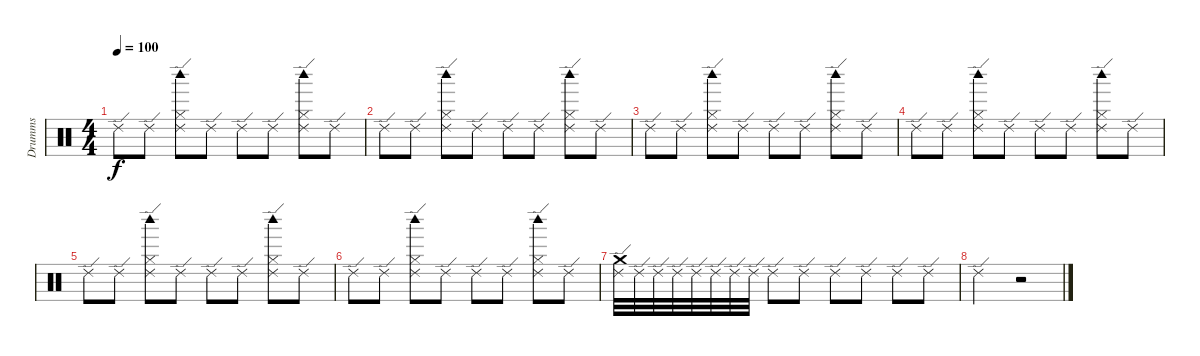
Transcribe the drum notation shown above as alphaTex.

\track ("Drumms" "Drumms") {instrument percussion}
\staff {score}
\articulation defaults
\ts (4 4)
\tempo 100
\clef neutral
\ks c "Ride (edge) 2".8{dy f} "Ride (edge) 2".8
("Ride (edge) 2" "Hi-Hat (closed)" "Woodblock high (hit)").8 "Ride (edge) 2".8 "Ride (edge) 2".8 "Ride (edge) 2".8 ("Ride (edge) 2" "Hi-Hat (closed)" "Woodblock high (hit)").8 "Ride (edge) 2".8 |
"Ride (edge) 2".8 "Ride (edge) 2".8 ("Ride (edge) 2" "Hi-Hat (closed)" "Woodblock high (hit)").8 "Ride (edge) 2".8 "Ride (edge) 2".8 "Ride (edge) 2".8 ("Ride (edge) 2" "Hi-Hat (closed)" "Woodblock high (hit)").8 "Ride (edge) 2".8 |
"Ride (edge) 2".8 "Ride (edge) 2".8 ("Ride (edge) 2" "Hi-Hat (closed)" "Woodblock high (hit)").8 "Ride (edge) 2".8 "Ride (edge) 2".8 "Ride (edge) 2".8 ("Ride (edge) 2" "Hi-Hat (closed)" "Woodblock high (hit)").8 "Ride (edge) 2".8 |
"Ride (edge) 2".8 "Ride (edge) 2".8 ("Ride (edge) 2" "Hi-Hat (closed)" "Woodblock high (hit)").8 "Ride (edge) 2".8 "Ride (edge) 2".8 "Ride (edge) 2".8 ("Ride (edge) 2" "Hi-Hat (closed)" "Woodblock high (hit)").8 "Ride (edge) 2".8 |
"Ride (edge) 2".8 "Ride (edge) 2".8 ("Ride (edge) 2" "Hi-Hat (closed)" "Woodblock high (hit)").8 "Ride (edge) 2".8 "Ride (edge) 2".8 "Ride (edge) 2".8 ("Ride (edge) 2" "Hi-Hat (closed)" "Woodblock high (hit)").8 "Ride (edge) 2".8 |
"Ride (edge) 2".8 "Ride (edge) 2".8 ("Ride (edge) 2" "Hi-Hat (closed)" "Woodblock high (hit)").8 "Ride (edge) 2".8 "Ride (edge) 2".8 "Ride (edge) 2".8 ("Ride (edge) 2" "Hi-Hat (closed)" "Woodblock high (hit)").8 "Ride (edge) 2".8 |
("Crash medium (hit)" "Ride (edge) 2").32 "Ride (edge) 2".32 "Ride (edge) 2".32 "Ride (edge) 2".32 "Ride (edge) 2".32 "Ride (edge) 2".32 "Ride (edge) 2".32 "Ride (edge) 2".32 "Ride (edge) 2".8 "Ride (edge) 2".8 "Ride (edge) 2".8 "Ride (edge) 2".8 "Ride (edge) 2".8 "Ride (edge) 2".8 |
"Ride (edge) 2".2 r.2
